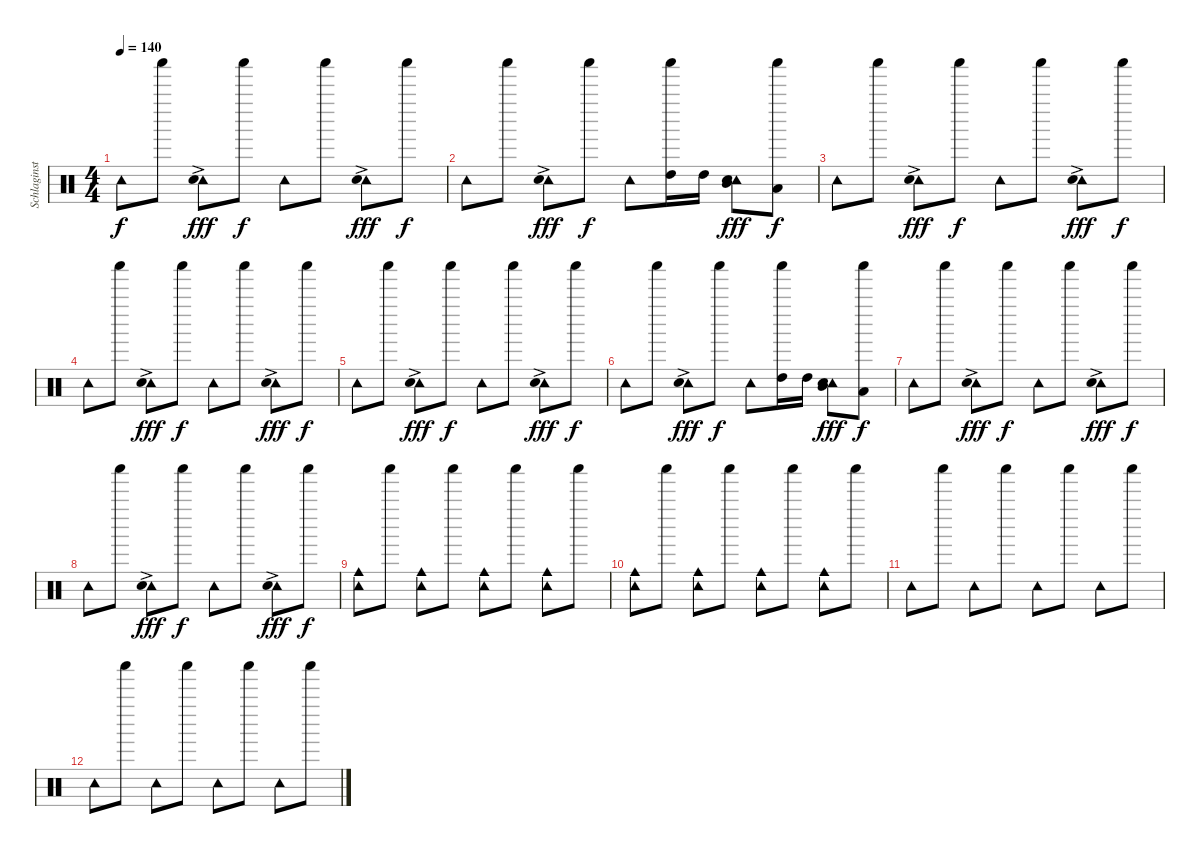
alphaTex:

\track ("Schlaginstrumente - Auswahl" "Schlaginst") {instrument percussion}
\staff {score}
\articulation defaults
\ts (4 4)
\tempo 140
\clef neutral
\ks c "Tambourine (hit)".8{dy f} "Shaker (hit)".8
("Tambourine (hit)" "Snare (hit) 2"{ac}).8{dy fff} "Shaker (hit)".8{dy f} "Tambourine (hit)".8 "Shaker (hit)".8 ("Tambourine (hit)" "Snare (hit) 2"{ac}).8{dy fff} "Shaker (hit)".8{dy f} |
"Tambourine (hit)".8 "Shaker (hit)".8 ("Tambourine (hit)" "Snare (hit) 2"{ac}).8{dy fff} "Shaker (hit)".8{dy f} "Tambourine (hit)".8 ("Shaker (hit)" "High Tom (hit)").16 "High Tom (hit)".16 ("Tambourine (hit)" "Mid Tom (hit)" "Snare (hit) 2").8{dy fff} ("Shaker (hit)" "Low Tom (hit)").8{dy f} |
"Tambourine (hit)".8 "Shaker (hit)".8 ("Tambourine (hit)" "Snare (hit) 2"{ac}).8{dy fff} "Shaker (hit)".8{dy f} "Tambourine (hit)".8 "Shaker (hit)".8 ("Tambourine (hit)" "Snare (hit) 2"{ac}).8{dy fff} "Shaker (hit)".8{dy f} |
"Tambourine (hit)".8 "Shaker (hit)".8 ("Tambourine (hit)" "Snare (hit) 2"{ac}).8{dy fff} "Shaker (hit)".8{dy f} "Tambourine (hit)".8 "Shaker (hit)".8 ("Tambourine (hit)" "Snare (hit) 2"{ac}).8{dy fff} "Shaker (hit)".8{dy f} |
"Tambourine (hit)".8 "Shaker (hit)".8 ("Tambourine (hit)" "Snare (hit) 2"{ac}).8{dy fff} "Shaker (hit)".8{dy f} "Tambourine (hit)".8 "Shaker (hit)".8 ("Tambourine (hit)" "Snare (hit) 2"{ac}).8{dy fff} "Shaker (hit)".8{dy f} |
"Tambourine (hit)".8 "Shaker (hit)".8 ("Tambourine (hit)" "Snare (hit) 2"{ac}).8{dy fff} "Shaker (hit)".8{dy f} "Tambourine (hit)".8 ("Shaker (hit)" "High Tom (hit)").16 "High Tom (hit)".16 ("Tambourine (hit)" "Mid Tom (hit)" "Snare (hit) 2").8{dy fff} ("Shaker (hit)" "Low Tom (hit)").8{dy f} |
"Tambourine (hit)".8 "Shaker (hit)".8 ("Tambourine (hit)" "Snare (hit) 2"{ac}).8{dy fff} "Shaker (hit)".8{dy f} "Tambourine (hit)".8 "Shaker (hit)".8 ("Tambourine (hit)" "Snare (hit) 2"{ac}).8{dy fff} "Shaker (hit)".8{dy f} |
"Tambourine (hit)".8 "Shaker (hit)".8 ("Tambourine (hit)" "Snare (hit) 2"{ac}).8{dy fff} "Shaker (hit)".8{dy f} "Tambourine (hit)".8 "Shaker (hit)".8 ("Tambourine (hit)" "Snare (hit) 2"{ac}).8{dy fff} "Shaker (hit)".8{dy f} |
("Tambourine (hit)" "Cowbell medium (hit)").8 "Shaker (hit)".8 ("Tambourine (hit)" "Cowbell medium (hit)").8 "Shaker (hit)".8 ("Tambourine (hit)" "Cowbell medium (hit)").8 "Shaker (hit)".8 ("Tambourine (hit)" "Cowbell medium (hit)").8 "Shaker (hit)".8 |
("Tambourine (hit)" "Cowbell medium (hit)").8 "Shaker (hit)".8 ("Tambourine (hit)" "Cowbell medium (hit)").8 "Shaker (hit)".8 ("Tambourine (hit)" "Cowbell medium (hit)").8 "Shaker (hit)".8 ("Tambourine (hit)" "Cowbell medium (hit)").8 "Shaker (hit)".8 |
"Tambourine (hit)".8 "Shaker (hit)".8 "Tambourine (hit)".8 "Shaker (hit)".8 "Tambourine (hit)".8 "Shaker (hit)".8 "Tambourine (hit)".8 "Shaker (hit)".8 |
"Tambourine (hit)".8 "Shaker (hit)".8 "Tambourine (hit)".8 "Shaker (hit)".8 "Tambourine (hit)".8 "Shaker (hit)".8 "Tambourine (hit)".8 "Shaker (hit)".8
